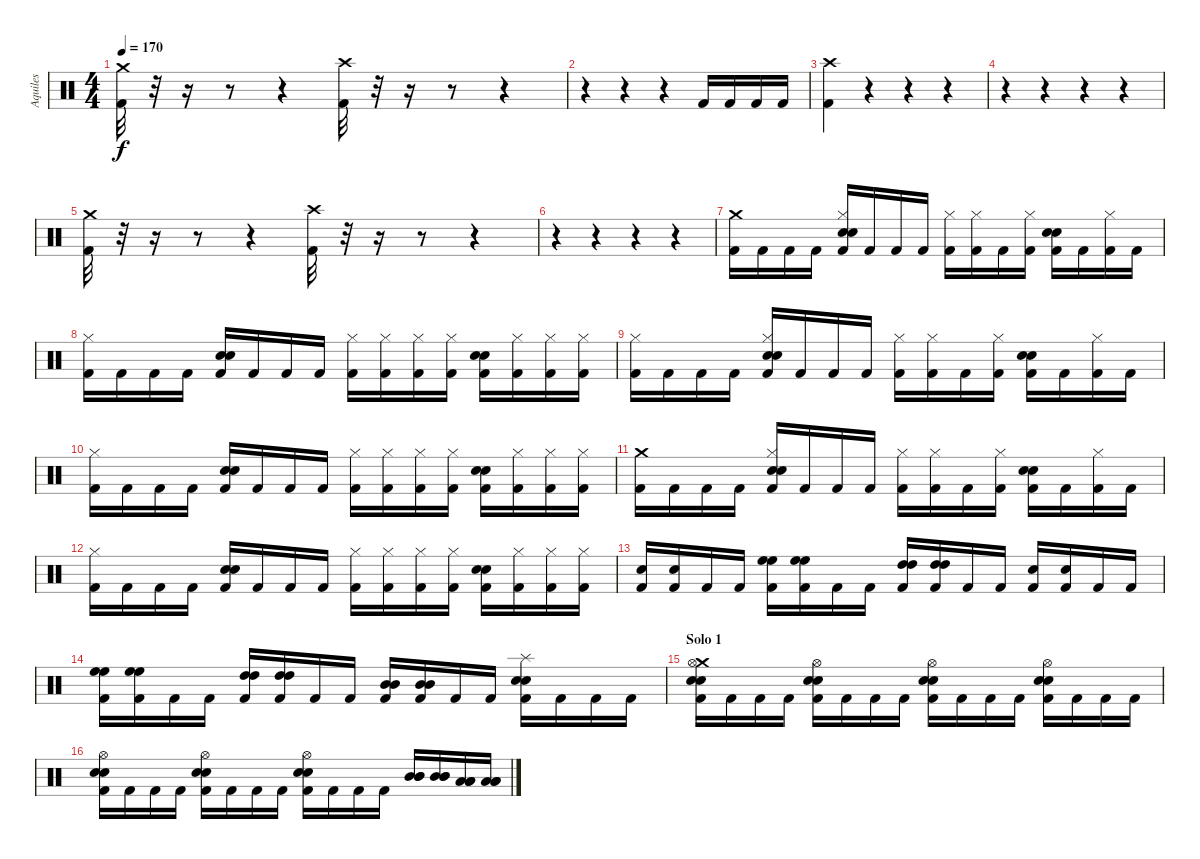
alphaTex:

\track ("Aquiles" "Aquiles") {instrument percussion}
\staff {score}
\articulation defaults
\ts (4 4)
\tempo 170
\clef neutral
\ks c
("Crash medium (hit)" "Kick (hit) 2").32{dy f} r.32 r.16 r.8 r.4 ("Crash high (hit)" "Kick (hit) 2").32 r.32 r.16 r.8 r.4 |
r.4 r.4 r.4 "Kick (hit) 2".16 "Kick (hit) 2".16 "Kick (hit) 2".16 "Kick (hit) 2".16 |
("Crash high (hit)" "Kick (hit) 2").4 r.4 r.4 r.4 |
r.4 r.4 r.4 r.4 |
("Crash medium (hit)" "Kick (hit) 2").32 r.32 r.16 r.8 r.4 ("Crash high (hit)" "Kick (hit) 2").32 r.32 r.16 r.8 r.4 |
r.4 r.4 r.4 r.4 |
("Crash medium (hit)" "Kick (hit) 2").16 "Kick (hit) 2".16 "Kick (hit) 2".16 "Kick (hit) 2".16 ("Hi-Hat (closed)" "Electric Snare (hit)" "Snare (hit) 2" "Kick (hit) 2").16 "Kick (hit) 2".16 "Kick (hit) 2".16 "Kick (hit) 2".16 ("Hi-Hat (closed)" "Kick (hit) 2").16 ("Hi-Hat (closed)" "Kick (hit) 2").16 "Kick (hit) 2".16 ("Hi-Hat (closed)" "Kick (hit) 2").16 ("Electric Snare (hit)" "Snare (hit) 2" "Kick (hit) 2").16 "Kick (hit) 2".16 ("Hi-Hat (closed)" "Kick (hit) 2").16 "Kick (hit) 2".16 |
("Hi-Hat (closed)" "Kick (hit) 2").16 "Kick (hit) 2".16 "Kick (hit) 2".16 "Kick (hit) 2".16 ("Electric Snare (hit)" "Snare (hit) 2" "Kick (hit) 2").16 "Kick (hit) 2".16 "Kick (hit) 2".16 "Kick (hit) 2".16 ("Hi-Hat (closed)" "Kick (hit) 2").16 ("Hi-Hat (closed)" "Kick (hit) 2").16 ("Hi-Hat (closed)" "Kick (hit) 2").16 ("Hi-Hat (closed)" "Kick (hit) 2").16 ("Electric Snare (hit)" "Snare (hit) 2" "Kick (hit) 2").16 ("Hi-Hat (closed)" "Kick (hit) 2").16 ("Hi-Hat (closed)" "Kick (hit) 2").16 ("Hi-Hat (closed)" "Kick (hit) 2").16 |
("Hi-Hat (closed)" "Kick (hit) 2").16 "Kick (hit) 2".16 "Kick (hit) 2".16 "Kick (hit) 2".16 ("Hi-Hat (closed)" "Electric Snare (hit)" "Snare (hit) 2" "Kick (hit) 2").16 "Kick (hit) 2".16 "Kick (hit) 2".16 "Kick (hit) 2".16 ("Hi-Hat (closed)" "Kick (hit) 2").16 ("Hi-Hat (closed)" "Kick (hit) 2").16 "Kick (hit) 2".16 ("Hi-Hat (closed)" "Kick (hit) 2").16 ("Electric Snare (hit)" "Snare (hit) 2" "Kick (hit) 2").16 "Kick (hit) 2".16 ("Hi-Hat (closed)" "Kick (hit) 2").16 "Kick (hit) 2".16 |
("Hi-Hat (closed)" "Kick (hit) 2").16 "Kick (hit) 2".16 "Kick (hit) 2".16 "Kick (hit) 2".16 ("Electric Snare (hit)" "Snare (hit) 2" "Kick (hit) 2").16 "Kick (hit) 2".16 "Kick (hit) 2".16 "Kick (hit) 2".16 ("Hi-Hat (closed)" "Kick (hit) 2").16 ("Hi-Hat (closed)" "Kick (hit) 2").16 ("Hi-Hat (closed)" "Kick (hit) 2").16 ("Hi-Hat (closed)" "Kick (hit) 2").16 ("Electric Snare (hit)" "Snare (hit) 2" "Kick (hit) 2").16 ("Hi-Hat (closed)" "Kick (hit) 2").16 ("Hi-Hat (closed)" "Kick (hit) 2").16 ("Hi-Hat (closed)" "Kick (hit) 2").16 |
("Crash medium (hit)" "Kick (hit) 2").16 "Kick (hit) 2".16 "Kick (hit) 2".16 "Kick (hit) 2".16 ("Hi-Hat (closed)" "Electric Snare (hit)" "Snare (hit) 2" "Kick (hit) 2").16 "Kick (hit) 2".16 "Kick (hit) 2".16 "Kick (hit) 2".16 ("Hi-Hat (closed)" "Kick (hit) 2").16 ("Hi-Hat (closed)" "Kick (hit) 2").16 "Kick (hit) 2".16 ("Hi-Hat (closed)" "Kick (hit) 2").16 ("Electric Snare (hit)" "Snare (hit) 2" "Kick (hit) 2").16 "Kick (hit) 2".16 ("Hi-Hat (closed)" "Kick (hit) 2").16 "Kick (hit) 2".16 |
("Hi-Hat (closed)" "Kick (hit) 2").16 "Kick (hit) 2".16 "Kick (hit) 2".16 "Kick (hit) 2".16 ("Electric Snare (hit)" "Snare (hit) 2" "Kick (hit) 2").16 "Kick (hit) 2".16 "Kick (hit) 2".16 "Kick (hit) 2".16 ("Hi-Hat (closed)" "Kick (hit) 2").16 ("Hi-Hat (closed)" "Kick (hit) 2").16 ("Hi-Hat (closed)" "Kick (hit) 2").16 ("Hi-Hat (closed)" "Kick (hit) 2").16 ("Electric Snare (hit)" "Snare (hit) 2" "Kick (hit) 2").16 ("Hi-Hat (closed)" "Kick (hit) 2").16 ("Hi-Hat (closed)" "Kick (hit) 2").16 ("Hi-Hat (closed)" "Kick (hit) 2").16 |
("Electric Snare (hit)" "Kick (hit) 2").16 ("Electric Snare (hit)" "Kick (hit) 2").16 "Kick (hit) 2".16 "Kick (hit) 2".16 ("High Floor Tom (hit)" "High Floor Tom (hit)" "Kick (hit) 2").16 ("High Floor Tom (hit)" "High Floor Tom (hit)" "Kick (hit) 2").16 "Kick (hit) 2".16 "Kick (hit) 2".16 ("High Tom (hit)" "High Tom (hit)" "Kick (hit) 2").16 ("High Tom (hit)" "High Tom (hit)" "Kick (hit) 2").16 "Kick (hit) 2".16 "Kick (hit) 2".16 ("Electric Snare (hit)" "Kick (hit) 2").16 ("Electric Snare (hit)" "Kick (hit) 2").16 "Kick (hit) 2".16 "Kick (hit) 2".16 |
("High Floor Tom (hit)" "High Floor Tom (hit)" "Kick (hit) 2").16 ("High Floor Tom (hit)" "High Floor Tom (hit)" "Kick (hit) 2").16 "Kick (hit) 2".16 "Kick (hit) 2".16 ("High Tom (hit)" "High Tom (hit)" "Kick (hit) 2").16 ("High Tom (hit)" "High Tom (hit)" "Kick (hit) 2").16 "Kick (hit) 2".16 "Kick (hit) 2".16 ("Mid Tom (hit)" "Mid Tom (hit)" "Kick (hit) 2").16 ("Mid Tom (hit)" "Mid Tom (hit)" "Kick (hit) 2").16 "Kick (hit) 2".16 "Kick (hit) 2".16 ("Splash (hit)" "Electric Snare (hit)" "Snare (hit) 2" "Kick (hit) 2").16 "Kick (hit) 2".16 "Kick (hit) 2".16 "Kick (hit) 2".16 |
\section ("" "Solo 1")
("Crash medium (hit)" "Hi-Hat (open)" "Electric Snare (hit)" "Snare (hit) 2" "Kick (hit) 2").16 "Kick (hit) 2".16 "Kick (hit) 2".16 "Kick (hit) 2".16 ("Hi-Hat (open)" "Electric Snare (hit)" "Snare (hit) 2" "Kick (hit) 2").16 "Kick (hit) 2".16 "Kick (hit) 2".16 "Kick (hit) 2".16 ("Hi-Hat (open)" "Electric Snare (hit)" "Snare (hit) 2" "Kick (hit) 2").16 "Kick (hit) 2".16 "Kick (hit) 2".16 "Kick (hit) 2".16 ("Hi-Hat (open)" "Electric Snare (hit)" "Snare (hit) 2" "Kick (hit) 2").16 "Kick (hit) 2".16 "Kick (hit) 2".16 "Kick (hit) 2".16 |
("Hi-Hat (open)" "Electric Snare (hit)" "Snare (hit) 2" "Kick (hit) 2").16 "Kick (hit) 2".16 "Kick (hit) 2".16 "Kick (hit) 2".16 ("Hi-Hat (open)" "Electric Snare (hit)" "Snare (hit) 2" "Kick (hit) 2").16 "Kick (hit) 2".16 "Kick (hit) 2".16 "Kick (hit) 2".16 ("Hi-Hat (open)" "Electric Snare (hit)" "Snare (hit) 2" "Kick (hit) 2").16 "Kick (hit) 2".16 "Kick (hit) 2".16 "Kick (hit) 2".16 ("Mid Tom (hit)" "Mid Tom (hit)" "Mid Tom (hit)").16 ("Mid Tom (hit)" "Mid Tom (hit)" "Mid Tom (hit)").16 ("Low Tom (hit)" "Low Tom (hit)" "Low Tom (hit)").16 ("Low Tom (hit)" "Low Tom (hit)" "Low Tom (hit)").16
